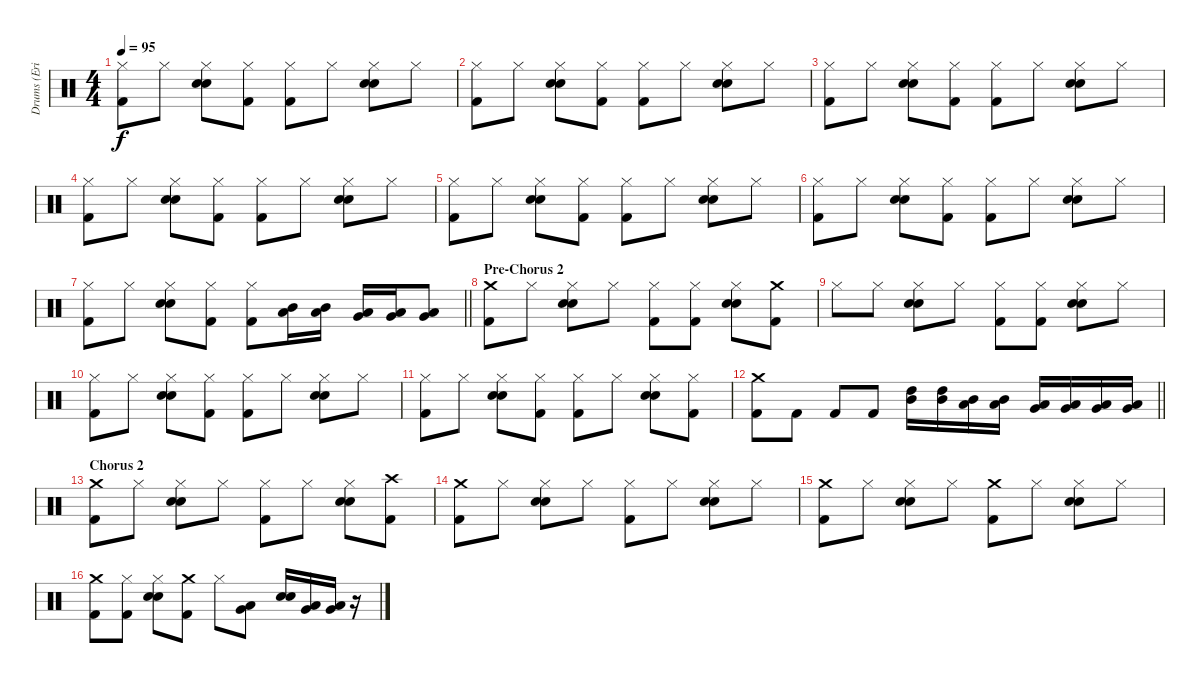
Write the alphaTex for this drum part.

\track ("Drums (Eric Carr)" "Drums (Eri") {instrument percussion}
\staff {score}
\articulation defaults
\ts (4 4)
\tempo 95
\clef neutral
\ks c
("Hi-Hat (closed)" "Kick (hit) 2").8{dy f} "Hi-Hat (closed)".8 ("Hi-Hat (closed)" "Electric Snare (hit)" "Snare (hit) 2").8 ("Hi-Hat (closed)" "Kick (hit) 2").8 ("Hi-Hat (closed)" "Kick (hit) 2").8 "Hi-Hat (closed)".8 ("Hi-Hat (closed)" "Electric Snare (hit)" "Snare (hit) 2").8 "Hi-Hat (closed)".8 |
("Hi-Hat (closed)" "Kick (hit) 2").8 "Hi-Hat (closed)".8 ("Hi-Hat (closed)" "Electric Snare (hit)" "Snare (hit) 2").8 ("Hi-Hat (closed)" "Kick (hit) 2").8 ("Hi-Hat (closed)" "Kick (hit) 2").8 "Hi-Hat (closed)".8 ("Hi-Hat (closed)" "Electric Snare (hit)" "Snare (hit) 2").8 "Hi-Hat (closed)".8 |
("Hi-Hat (closed)" "Kick (hit) 2").8 "Hi-Hat (closed)".8 ("Hi-Hat (closed)" "Electric Snare (hit)" "Snare (hit) 2").8 ("Hi-Hat (closed)" "Kick (hit) 2").8 ("Hi-Hat (closed)" "Kick (hit) 2").8 "Hi-Hat (closed)".8 ("Hi-Hat (closed)" "Electric Snare (hit)" "Snare (hit) 2").8 "Hi-Hat (closed)".8 |
("Hi-Hat (closed)" "Kick (hit) 2").8 "Hi-Hat (closed)".8 ("Hi-Hat (closed)" "Electric Snare (hit)" "Snare (hit) 2").8 ("Hi-Hat (closed)" "Kick (hit) 2").8 ("Hi-Hat (closed)" "Kick (hit) 2").8 "Hi-Hat (closed)".8 ("Hi-Hat (closed)" "Electric Snare (hit)" "Snare (hit) 2").8 "Hi-Hat (closed)".8 |
("Hi-Hat (closed)" "Kick (hit) 2").8 "Hi-Hat (closed)".8 ("Hi-Hat (closed)" "Electric Snare (hit)" "Snare (hit) 2").8 ("Hi-Hat (closed)" "Kick (hit) 2").8 ("Hi-Hat (closed)" "Kick (hit) 2").8 "Hi-Hat (closed)".8 ("Hi-Hat (closed)" "Electric Snare (hit)" "Snare (hit) 2").8 "Hi-Hat (closed)".8 |
("Hi-Hat (closed)" "Kick (hit) 2").8 "Hi-Hat (closed)".8 ("Hi-Hat (closed)" "Electric Snare (hit)" "Snare (hit) 2").8 ("Hi-Hat (closed)" "Kick (hit) 2").8 ("Hi-Hat (closed)" "Kick (hit) 2").8 "Hi-Hat (closed)".8 ("Hi-Hat (closed)" "Electric Snare (hit)" "Snare (hit) 2").8 "Hi-Hat (closed)".8 |
\barLineRight lightlight
("Hi-Hat (closed)" "Kick (hit) 2").8 "Hi-Hat (closed)".8 ("Hi-Hat (closed)" "Electric Snare (hit)" "Snare (hit) 2").8 ("Hi-Hat (closed)" "Kick (hit) 2").8 ("Hi-Hat (closed)" "Kick (hit) 2").8 ("Mid Tom (hit)" "Low Tom (hit)").16 ("Mid Tom (hit)" "Low Tom (hit)").16 ("Low Tom (hit)" "Very Low Tom (hit)").16 ("Low Tom (hit)" "Very Low Tom (hit)").16 ("Very Low Tom (hit)" "Low Floor Tom (hit)").8 |
\section ("" "Pre-Chorus 2")
("Crash medium (hit)" "Kick (hit) 2").8 "Hi-Hat (closed)".8 ("Hi-Hat (closed)" "Electric Snare (hit)" "Snare (hit) 2").8 "Hi-Hat (closed)".8 ("Hi-Hat (closed)" "Kick (hit) 2").8 ("Kick (hit) 2" "Hi-Hat (closed)").8 ("Hi-Hat (closed)" "Electric Snare (hit)" "Snare (hit) 2").8 ("Kick (hit) 2" "Crash medium (hit)").8 |
"Hi-Hat (closed)".8 "Hi-Hat (closed)".8 ("Hi-Hat (closed)" "Electric Snare (hit)" "Snare (hit) 2").8 "Hi-Hat (closed)".8 ("Hi-Hat (closed)" "Kick (hit) 2").8 ("Kick (hit) 2" "Hi-Hat (closed)").8 ("Hi-Hat (closed)" "Electric Snare (hit)" "Snare (hit) 2").8 "Hi-Hat (closed)".8 |
("Hi-Hat (closed)" "Kick (hit) 2").8 "Hi-Hat (closed)".8 ("Hi-Hat (closed)" "Electric Snare (hit)" "Snare (hit) 2").8 ("Hi-Hat (closed)" "Kick (hit) 2").8 ("Hi-Hat (closed)" "Kick (hit) 2").8 "Hi-Hat (closed)".8 ("Hi-Hat (closed)" "Electric Snare (hit)" "Snare (hit) 2").8 "Hi-Hat (closed)".8 |
("Hi-Hat (closed)" "Kick (hit) 2").8 "Hi-Hat (closed)".8 ("Hi-Hat (closed)" "Electric Snare (hit)" "Snare (hit) 2").8 ("Hi-Hat (closed)" "Kick (hit) 2").8 ("Hi-Hat (closed)" "Kick (hit) 2").8 "Hi-Hat (closed)".8 ("Hi-Hat (closed)" "Electric Snare (hit)" "Snare (hit) 2").8 ("Kick (hit) 2" "Hi-Hat (closed)").8 |
\barLineRight lightlight
("Crash medium (hit)" "Kick (hit) 2").8 "Kick (hit) 2".8 "Kick (hit) 2".8 "Kick (hit) 2".8 ("Mid Tom (hit)" "High Tom (hit)").16 ("Mid Tom (hit)" "High Tom (hit)").16 ("Low Tom (hit)" "Mid Tom (hit)").16 ("Low Tom (hit)" "Mid Tom (hit)").16 ("Low Tom (hit)" "Very Low Tom (hit)").16 ("Low Tom (hit)" "Very Low Tom (hit)").16 ("Very Low Tom (hit)" "Low Floor Tom (hit)").16 ("Very Low Tom (hit)" "Low Floor Tom (hit)").16 |
\section ("" "Chorus 2")
("Crash medium (hit)" "Kick (hit) 2").8 "Hi-Hat (closed)".8 ("Hi-Hat (closed)" "Electric Snare (hit)" "Snare (hit) 2").8 "Hi-Hat (closed)".8 ("Hi-Hat (closed)" "Kick (hit) 2").8 "Hi-Hat (closed)".8 ("Hi-Hat (closed)" "Electric Snare (hit)" "Snare (hit) 2").8 ("Kick (hit) 2" "Crash high (hit)").8 |
("Crash medium (hit)" "Kick (hit) 2").8 "Hi-Hat (closed)".8 ("Hi-Hat (closed)" "Electric Snare (hit)" "Snare (hit) 2").8 "Hi-Hat (closed)".8 ("Hi-Hat (closed)" "Kick (hit) 2").8 "Hi-Hat (closed)".8 ("Hi-Hat (closed)" "Electric Snare (hit)" "Snare (hit) 2").8 "Hi-Hat (closed)".8 |
("Crash medium (hit)" "Kick (hit) 2").8 "Hi-Hat (closed)".8 ("Hi-Hat (closed)" "Electric Snare (hit)" "Snare (hit) 2").8 "Hi-Hat (closed)".8 ("Crash medium (hit)" "Kick (hit) 2").8 "Hi-Hat (closed)".8 ("Hi-Hat (closed)" "Electric Snare (hit)" "Snare (hit) 2").8 "Hi-Hat (closed)".8 |
("Crash medium (hit)" "Kick (hit) 2").8 ("Kick (hit) 2" "Hi-Hat (closed)").8 ("Hi-Hat (closed)" "Electric Snare (hit)" "Snare (hit) 2").8 ("Crash medium (hit)" "Kick (hit) 2").8 "Hi-Hat (closed)".8 ("Low Tom (hit)" "Very Low Tom (hit)").8 ("Snare (hit) 2" "Electric Snare (hit)").16 ("Very Low Tom (hit)" "Low Tom (hit)").16 ("Very Low Tom (hit)" "Low Tom (hit)").16 r.16
